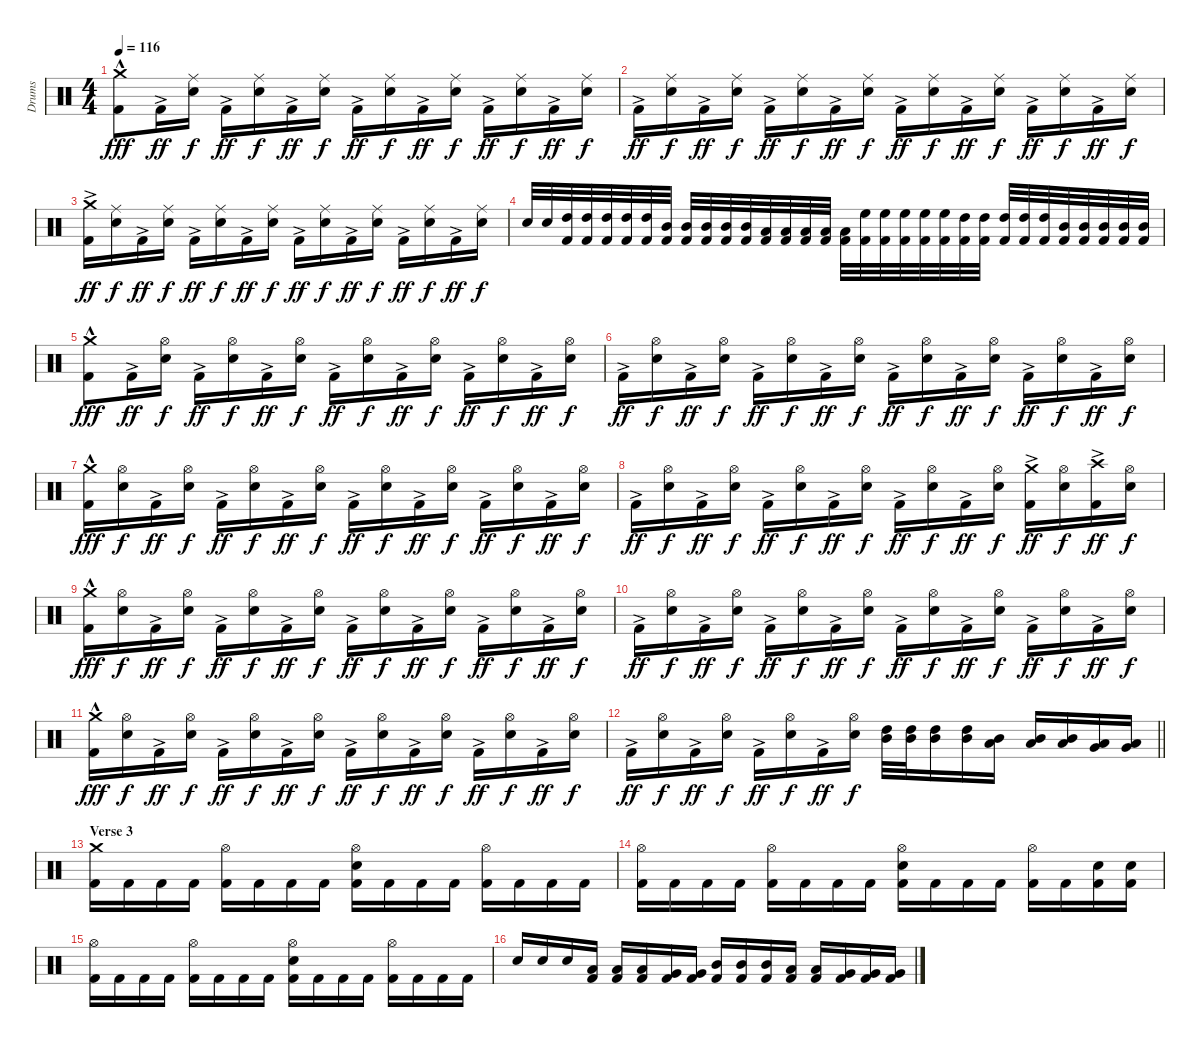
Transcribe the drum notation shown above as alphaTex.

\track ("Drums" "Drums") {instrument percussion}
\staff {score}
\articulation defaults
\ts (4 4)
\tempo 116
\clef neutral
\ks c
("Crash medium (hit)" "Kick (hit) 2"{hac}).8{dy fff} "Kick (hit) 2"{ac}.16{dy ff} ("Electric Snare (hit)" "Ride (middle)").16{dy f} "Kick (hit) 2"{ac}.16{dy ff} ("Electric Snare (hit)" "Ride (middle)").16{dy f} "Kick (hit) 2"{ac}.16{dy ff} ("Electric Snare (hit)" "Ride (middle)").16{dy f} "Kick (hit) 2"{ac}.16{dy ff} ("Electric Snare (hit)" "Ride (middle)").16{dy f} "Kick (hit) 2"{ac}.16{dy ff} ("Electric Snare (hit)" "Ride (middle)").16{dy f} "Kick (hit) 2"{ac}.16{dy ff} ("Electric Snare (hit)" "Ride (middle)").16{dy f} "Kick (hit) 2"{ac}.16{dy ff} ("Electric Snare (hit)" "Ride (middle)").16{dy f} |
"Kick (hit) 2"{ac}.16{dy ff} ("Electric Snare (hit)" "Ride (middle)").16{dy f} "Kick (hit) 2"{ac}.16{dy ff} ("Electric Snare (hit)" "Ride (middle)").16{dy f} "Kick (hit) 2"{ac}.16{dy ff} ("Electric Snare (hit)" "Ride (middle)").16{dy f} "Kick (hit) 2"{ac}.16{dy ff} ("Electric Snare (hit)" "Ride (middle)").16{dy f} "Kick (hit) 2"{ac}.16{dy ff} ("Electric Snare (hit)" "Ride (middle)").16{dy f} "Kick (hit) 2"{ac}.16{dy ff} ("Electric Snare (hit)" "Ride (middle)").16{dy f} "Kick (hit) 2"{ac}.16{dy ff} ("Electric Snare (hit)" "Ride (middle)").16{dy f} "Kick (hit) 2"{ac}.16{dy ff} ("Electric Snare (hit)" "Ride (middle)").16{dy f} |
("Crash medium (hit)" "Kick (hit) 2"{ac}).16{dy ff} ("Electric Snare (hit)" "Ride (middle)").16{dy f} "Kick (hit) 2"{ac}.16{dy ff} ("Electric Snare (hit)" "Ride (middle)").16{dy f} "Kick (hit) 2"{ac}.16{dy ff} ("Electric Snare (hit)" "Ride (middle)").16{dy f} "Kick (hit) 2"{ac}.16{dy ff} ("Electric Snare (hit)" "Ride (middle)").16{dy f} "Kick (hit) 2"{ac}.16{dy ff} ("Electric Snare (hit)" "Ride (middle)").16{dy f} "Kick (hit) 2"{ac}.16{dy ff} ("Electric Snare (hit)" "Ride (middle)").16{dy f} "Kick (hit) 2"{ac}.16{dy ff} ("Electric Snare (hit)" "Ride (middle)").16{dy f} "Kick (hit) 2"{ac}.16{dy ff} ("Electric Snare (hit)" "Ride (middle)").16{dy f} |
"Electric Snare (hit)".32 "Electric Snare (hit)".32 ("High Tom (hit)" "Kick (hit) 2").32 ("High Tom (hit)" "Kick (hit) 2").32 ("High Tom (hit)" "Kick (hit) 2").32 ("High Tom (hit)" "Kick (hit) 2").32 ("High Tom (hit)" "Kick (hit) 2").32 ("Mid Tom (hit)" "Kick (hit) 2").32 ("Mid Tom (hit)" "Kick (hit) 2").32 ("Mid Tom (hit)" "Kick (hit) 2").32 ("Mid Tom (hit)" "Kick (hit) 2").32 ("Mid Tom (hit)" "Kick (hit) 2").32 ("Low Tom (hit)" "Kick (hit) 2").32 ("Low Tom (hit)" "Kick (hit) 2").32 ("Low Tom (hit)" "Kick (hit) 2").32 ("Low Tom (hit)" "Kick (hit) 2").32 ("Low Tom (hit)" "Kick (hit) 2").32 ("High Floor Tom (hit)" "Kick (hit) 2").32 ("High Floor Tom (hit)" "Kick (hit) 2").32 ("High Floor Tom (hit)" "Kick (hit) 2").32 ("High Floor Tom (hit)" "Kick (hit) 2").32 ("High Floor Tom (hit)" "Kick (hit) 2").32 ("High Tom (hit)" "Kick (hit) 2").32 ("High Tom (hit)" "Kick (hit) 2").32 ("High Tom (hit)" "Kick (hit) 2").32 ("High Tom (hit)" "Kick (hit) 2").32 ("High Tom (hit)" "Kick (hit) 2").32 ("Mid Tom (hit)" "Kick (hit) 2").32 ("Mid Tom (hit)" "Kick (hit) 2").32 ("Mid Tom (hit)" "Kick (hit) 2").32 ("Mid Tom (hit)" "Kick (hit) 2").32 ("Mid Tom (hit)" "Kick (hit) 2").32 |
("Crash medium (hit)" "Kick (hit) 2"{hac}).8{dy fff} "Kick (hit) 2"{ac}.16{dy ff} ("Electric Snare (hit)" "Hi-Hat (open)").16{dy f} "Kick (hit) 2"{ac}.16{dy ff} ("Electric Snare (hit)" "Hi-Hat (open)").16{dy f} "Kick (hit) 2"{ac}.16{dy ff} ("Electric Snare (hit)" "Hi-Hat (open)").16{dy f} "Kick (hit) 2"{ac}.16{dy ff} ("Electric Snare (hit)" "Hi-Hat (open)").16{dy f} "Kick (hit) 2"{ac}.16{dy ff} ("Electric Snare (hit)" "Hi-Hat (open)").16{dy f} "Kick (hit) 2"{ac}.16{dy ff} ("Electric Snare (hit)" "Hi-Hat (open)").16{dy f} "Kick (hit) 2"{ac}.16{dy ff} ("Electric Snare (hit)" "Hi-Hat (open)").16{dy f} |
"Kick (hit) 2"{ac}.16{dy ff} ("Electric Snare (hit)" "Hi-Hat (open)").16{dy f} "Kick (hit) 2"{ac}.16{dy ff} ("Electric Snare (hit)" "Hi-Hat (open)").16{dy f} "Kick (hit) 2"{ac}.16{dy ff} ("Electric Snare (hit)" "Hi-Hat (open)").16{dy f} "Kick (hit) 2"{ac}.16{dy ff} ("Electric Snare (hit)" "Hi-Hat (open)").16{dy f} "Kick (hit) 2"{ac}.16{dy ff} ("Electric Snare (hit)" "Hi-Hat (open)").16{dy f} "Kick (hit) 2"{ac}.16{dy ff} ("Electric Snare (hit)" "Hi-Hat (open)").16{dy f} "Kick (hit) 2"{ac}.16{dy ff} ("Electric Snare (hit)" "Hi-Hat (open)").16{dy f} "Kick (hit) 2"{ac}.16{dy ff} ("Electric Snare (hit)" "Hi-Hat (open)").16{dy f} |
("Crash medium (hit)" "Kick (hit) 2"{hac}).16{dy fff} ("Electric Snare (hit)" "Hi-Hat (open)").16{dy f} "Kick (hit) 2"{ac}.16{dy ff} ("Electric Snare (hit)" "Hi-Hat (open)").16{dy f} "Kick (hit) 2"{ac}.16{dy ff} ("Electric Snare (hit)" "Hi-Hat (open)").16{dy f} "Kick (hit) 2"{ac}.16{dy ff} ("Electric Snare (hit)" "Hi-Hat (open)").16{dy f} "Kick (hit) 2"{ac}.16{dy ff} ("Electric Snare (hit)" "Hi-Hat (open)").16{dy f} "Kick (hit) 2"{ac}.16{dy ff} ("Electric Snare (hit)" "Hi-Hat (open)").16{dy f} "Kick (hit) 2"{ac}.16{dy ff} ("Electric Snare (hit)" "Hi-Hat (open)").16{dy f} "Kick (hit) 2"{ac}.16{dy ff} ("Electric Snare (hit)" "Hi-Hat (open)").16{dy f} |
"Kick (hit) 2"{ac}.16{dy ff} ("Electric Snare (hit)" "Hi-Hat (open)").16{dy f} "Kick (hit) 2"{ac}.16{dy ff} ("Electric Snare (hit)" "Hi-Hat (open)").16{dy f} "Kick (hit) 2"{ac}.16{dy ff} ("Electric Snare (hit)" "Hi-Hat (open)").16{dy f} "Kick (hit) 2"{ac}.16{dy ff} ("Electric Snare (hit)" "Hi-Hat (open)").16{dy f} "Kick (hit) 2"{ac}.16{dy ff} ("Electric Snare (hit)" "Hi-Hat (open)").16{dy f} "Kick (hit) 2"{ac}.16{dy ff} ("Electric Snare (hit)" "Hi-Hat (open)").16{dy f} ("Crash medium (hit)" "Kick (hit) 2"{ac}).16{dy ff} ("Electric Snare (hit)" "Hi-Hat (open)").16{dy f} ("Crash high (hit)" "Kick (hit) 2"{ac}).16{dy ff} ("Electric Snare (hit)" "Hi-Hat (open)").16{dy f} |
("Crash medium (hit)" "Kick (hit) 2"{hac}).16{dy fff} ("Electric Snare (hit)" "Hi-Hat (open)").16{dy f} "Kick (hit) 2"{ac}.16{dy ff} ("Electric Snare (hit)" "Hi-Hat (open)").16{dy f} "Kick (hit) 2"{ac}.16{dy ff} ("Electric Snare (hit)" "Hi-Hat (open)").16{dy f} "Kick (hit) 2"{ac}.16{dy ff} ("Electric Snare (hit)" "Hi-Hat (open)").16{dy f} "Kick (hit) 2"{ac}.16{dy ff} ("Electric Snare (hit)" "Hi-Hat (open)").16{dy f} "Kick (hit) 2"{ac}.16{dy ff} ("Electric Snare (hit)" "Hi-Hat (open)").16{dy f} "Kick (hit) 2"{ac}.16{dy ff} ("Electric Snare (hit)" "Hi-Hat (open)").16{dy f} "Kick (hit) 2"{ac}.16{dy ff} ("Electric Snare (hit)" "Hi-Hat (open)").16{dy f} |
"Kick (hit) 2"{ac}.16{dy ff} ("Electric Snare (hit)" "Hi-Hat (open)").16{dy f} "Kick (hit) 2"{ac}.16{dy ff} ("Electric Snare (hit)" "Hi-Hat (open)").16{dy f} "Kick (hit) 2"{ac}.16{dy ff} ("Electric Snare (hit)" "Hi-Hat (open)").16{dy f} "Kick (hit) 2"{ac}.16{dy ff} ("Electric Snare (hit)" "Hi-Hat (open)").16{dy f} "Kick (hit) 2"{ac}.16{dy ff} ("Electric Snare (hit)" "Hi-Hat (open)").16{dy f} "Kick (hit) 2"{ac}.16{dy ff} ("Electric Snare (hit)" "Hi-Hat (open)").16{dy f} "Kick (hit) 2"{ac}.16{dy ff} ("Electric Snare (hit)" "Hi-Hat (open)").16{dy f} "Kick (hit) 2"{ac}.16{dy ff} ("Electric Snare (hit)" "Hi-Hat (open)").16{dy f} |
("Crash medium (hit)" "Kick (hit) 2"{hac}).16{dy fff} ("Electric Snare (hit)" "Hi-Hat (open)").16{dy f} "Kick (hit) 2"{ac}.16{dy ff} ("Electric Snare (hit)" "Hi-Hat (open)").16{dy f} "Kick (hit) 2"{ac}.16{dy ff} ("Electric Snare (hit)" "Hi-Hat (open)").16{dy f} "Kick (hit) 2"{ac}.16{dy ff} ("Electric Snare (hit)" "Hi-Hat (open)").16{dy f} "Kick (hit) 2"{ac}.16{dy ff} ("Electric Snare (hit)" "Hi-Hat (open)").16{dy f} "Kick (hit) 2"{ac}.16{dy ff} ("Electric Snare (hit)" "Hi-Hat (open)").16{dy f} "Kick (hit) 2"{ac}.16{dy ff} ("Electric Snare (hit)" "Hi-Hat (open)").16{dy f} "Kick (hit) 2"{ac}.16{dy ff} ("Electric Snare (hit)" "Hi-Hat (open)").16{dy f} |
\barLineRight lightlight "Kick (hit) 2"{ac}.16{dy ff}
("Electric Snare (hit)" "Hi-Hat (open)").16{dy f} "Kick (hit) 2"{ac}.16{dy ff} ("Electric Snare (hit)" "Hi-Hat (open)").16{dy f} "Kick (hit) 2"{ac}.16{dy ff} ("Electric Snare (hit)" "Hi-Hat (open)").16{dy f} "Kick (hit) 2"{ac}.16{dy ff} ("Electric Snare (hit)" "Hi-Hat (open)").16{dy f} ("High Tom (hit)" "Mid Tom (hit)").32 ("High Tom (hit)" "Mid Tom (hit)").32 ("High Tom (hit)" "Mid Tom (hit)").16 ("High Tom (hit)" "Mid Tom (hit)").16 ("Mid Tom (hit)" "Low Tom (hit)").16 ("Mid Tom (hit)" "Low Tom (hit)").16 ("Mid Tom (hit)" "Low Tom (hit)").16 ("Low Tom (hit)" "Very Low Tom (hit)").16 ("Low Tom (hit)" "Very Low Tom (hit)").16 |
\section ("" "Verse 3")
("Crash medium (hit)" "Kick (hit) 2").16 "Kick (hit) 2".16 "Kick (hit) 2".16 "Kick (hit) 2".16 ("Hi-Hat (open)" "Kick (hit) 2").16 "Kick (hit) 2".16 "Kick (hit) 2".16 "Kick (hit) 2".16 ("Electric Snare (hit)" "Hi-Hat (open)" "Kick (hit) 2").16 "Kick (hit) 2".16 "Kick (hit) 2".16 "Kick (hit) 2".16 ("Hi-Hat (open)" "Kick (hit) 2").16 "Kick (hit) 2".16 "Kick (hit) 2".16 "Kick (hit) 2".16 |
("Hi-Hat (open)" "Kick (hit) 2").16 "Kick (hit) 2".16 "Kick (hit) 2".16 "Kick (hit) 2".16 ("Hi-Hat (open)" "Kick (hit) 2").16 "Kick (hit) 2".16 "Kick (hit) 2".16 "Kick (hit) 2".16 ("Electric Snare (hit)" "Hi-Hat (open)" "Kick (hit) 2").16 "Kick (hit) 2".16 "Kick (hit) 2".16 "Kick (hit) 2".16 ("Hi-Hat (open)" "Kick (hit) 2").16 "Kick (hit) 2".16 ("Electric Snare (hit)" "Kick (hit) 2").16 ("Electric Snare (hit)" "Kick (hit) 2").16 |
("Hi-Hat (open)" "Kick (hit) 2").16 "Kick (hit) 2".16 "Kick (hit) 2".16 "Kick (hit) 2".16 ("Hi-Hat (open)" "Kick (hit) 2").16 "Kick (hit) 2".16 "Kick (hit) 2".16 "Kick (hit) 2".16 ("Electric Snare (hit)" "Hi-Hat (open)" "Kick (hit) 2").16 "Kick (hit) 2".16 "Kick (hit) 2".16 "Kick (hit) 2".16 ("Hi-Hat (open)" "Kick (hit) 2").16 "Kick (hit) 2".16 "Kick (hit) 2".16 "Kick (hit) 2".16 |
"Electric Snare (hit)".16 "Electric Snare (hit)".16 "Electric Snare (hit)".16 ("Low Tom (hit)" "Kick (hit) 2").16 ("Low Tom (hit)" "Kick (hit) 2").16 ("Low Tom (hit)" "Kick (hit) 2").16 ("Very Low Tom (hit)" "Kick (hit) 2").16 ("Very Low Tom (hit)" "Kick (hit) 2").16 ("Mid Tom (hit)" "Kick (hit) 2").16 ("Mid Tom (hit)" "Kick (hit) 2").16 ("Mid Tom (hit)" "Kick (hit) 2").16 ("Low Tom (hit)" "Kick (hit) 2").16 ("Low Tom (hit)" "Kick (hit) 2").16 ("Very Low Tom (hit)" "Kick (hit) 2").16 ("Very Low Tom (hit)" "Kick (hit) 2").16 ("Very Low Tom (hit)" "Kick (hit) 2").16
